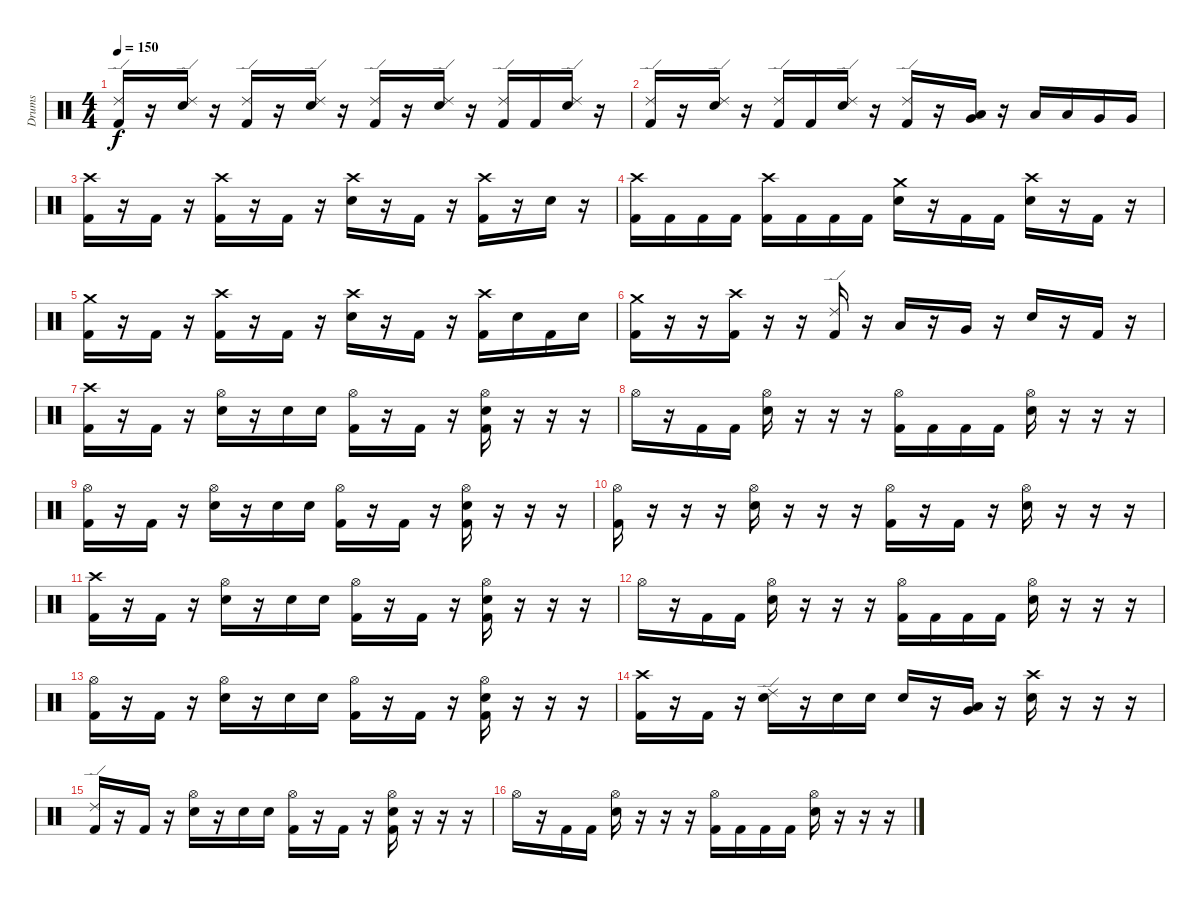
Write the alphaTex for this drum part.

\track ("Drums" "Drums") {instrument percussion}
\staff {score}
\articulation defaults
\ts (4 4)
\tempo 150
\clef neutral
\ks c
("Ride (edge) 2" "Kick (hit) 2").16{dy f} r.16 ("Ride (edge) 2" "Electric Snare (hit)").16 r.16 ("Ride (edge) 2" "Kick (hit) 2").16 r.16 ("Ride (edge) 2" "Electric Snare (hit)").16 r.16 ("Ride (edge) 2" "Kick (hit) 2").16 r.16 ("Ride (edge) 2" "Electric Snare (hit)").16 r.16 ("Ride (edge) 2" "Kick (hit) 2").16 "Kick (hit) 2".16 ("Ride (edge) 2" "Electric Snare (hit)").16 r.16 |
("Ride (edge) 2" "Kick (hit) 2").16 r.16 ("Ride (edge) 2" "Electric Snare (hit)").16 r.16 ("Ride (edge) 2" "Kick (hit) 2").16 "Kick (hit) 2".16 ("Ride (edge) 2" "Electric Snare (hit)").16 r.16 ("Ride (edge) 2" "Kick (hit) 2").16 r.16 ("Low Tom (hit)" "Very Low Tom (hit)").16 r.16 "Low Tom (hit)".16 "Low Tom (hit)".16 "Very Low Tom (hit)".16 "Very Low Tom (hit)".16 |
("Crash high (hit)" "Kick (hit) 2").16 r.16 "Kick (hit) 2".16 r.16 ("Crash high (hit)" "Kick (hit) 2").16 r.16 "Kick (hit) 2".16 r.16 ("Crash high (hit)" "Electric Snare (hit)").16 r.16 "Kick (hit) 2".16 r.16 ("Crash high (hit)" "Kick (hit) 2").16 r.16 "Electric Snare (hit)".16 r.16 |
("Crash high (hit)" "Kick (hit) 2").16 "Kick (hit) 2".16 "Kick (hit) 2".16 "Kick (hit) 2".16 ("Crash high (hit)" "Kick (hit) 2").16 "Kick (hit) 2".16 "Kick (hit) 2".16 "Kick (hit) 2".16 ("Crash medium (hit)" "Electric Snare (hit)").16 r.16 "Kick (hit) 2".16 "Kick (hit) 2".16 ("Crash high (hit)" "Electric Snare (hit)").16 r.16 "Kick (hit) 2".16 r.16 |
("Crash medium (hit)" "Kick (hit) 2").16 r.16 "Kick (hit) 2".16 r.16 ("Crash high (hit)" "Kick (hit) 2").16 r.16 "Kick (hit) 2".16 r.16 ("Crash high (hit)" "Electric Snare (hit)").16 r.16 "Kick (hit) 2".16 r.16 ("Crash high (hit)" "Kick (hit) 2").16 "Electric Snare (hit)".16 "Kick (hit) 2".16 "Electric Snare (hit)".16 |
("Crash medium (hit)" "Kick (hit) 2").16 r.16 r.16 ("Crash high (hit)" "Kick (hit) 2").16 r.16 r.16 ("Ride (edge) 2" "Kick (hit) 2").16 r.16 "Low Tom (hit)".16 r.16 "Very Low Tom (hit)".16 r.16 "Electric Snare (hit)".16 r.16 "Kick (hit) 2".16 r.16 |
("Crash high (hit)" "Kick (hit) 2").16 r.16 "Kick (hit) 2".16 r.16 ("Hi-Hat (open)" "Electric Snare (hit)").16 r.16 "Electric Snare (hit)".16 "Electric Snare (hit)".16 ("Hi-Hat (open)" "Kick (hit) 2").16 r.16 "Kick (hit) 2".16 r.16 ("Hi-Hat (open)" "Electric Snare (hit)" "Kick (hit) 2").16 r.16 r.16 r.16 |
"Hi-Hat (open)".16 r.16 "Kick (hit) 2".16 "Kick (hit) 2".16 ("Hi-Hat (open)" "Electric Snare (hit)").16 r.16 r.16 r.16 ("Hi-Hat (open)" "Kick (hit) 2").16 "Kick (hit) 2".16 "Kick (hit) 2".16 "Kick (hit) 2".16 ("Hi-Hat (open)" "Electric Snare (hit)").16 r.16 r.16 r.16 |
("Hi-Hat (open)" "Kick (hit) 2").16 r.16 "Kick (hit) 2".16 r.16 ("Hi-Hat (open)" "Electric Snare (hit)").16 r.16 "Electric Snare (hit)".16 "Electric Snare (hit)".16 ("Hi-Hat (open)" "Kick (hit) 2").16 r.16 "Kick (hit) 2".16 r.16 ("Hi-Hat (open)" "Electric Snare (hit)" "Kick (hit) 2").16 r.16 r.16 r.16 |
("Hi-Hat (open)" "Kick (hit) 2").16 r.16 r.16 r.16 ("Hi-Hat (open)" "Electric Snare (hit)").16 r.16 r.16 r.16 ("Hi-Hat (open)" "Kick (hit) 2").16 r.16 "Kick (hit) 2".16 r.16 ("Hi-Hat (open)" "Electric Snare (hit)").16 r.16 r.16 r.16 |
("Crash high (hit)" "Kick (hit) 2").16 r.16 "Kick (hit) 2".16 r.16 ("Hi-Hat (open)" "Electric Snare (hit)").16 r.16 "Electric Snare (hit)".16 "Electric Snare (hit)".16 ("Hi-Hat (open)" "Kick (hit) 2").16 r.16 "Kick (hit) 2".16 r.16 ("Hi-Hat (open)" "Electric Snare (hit)" "Kick (hit) 2").16 r.16 r.16 r.16 |
"Hi-Hat (open)".16 r.16 "Kick (hit) 2".16 "Kick (hit) 2".16 ("Hi-Hat (open)" "Electric Snare (hit)").16 r.16 r.16 r.16 ("Hi-Hat (open)" "Kick (hit) 2").16 "Kick (hit) 2".16 "Kick (hit) 2".16 "Kick (hit) 2".16 ("Hi-Hat (open)" "Electric Snare (hit)").16 r.16 r.16 r.16 |
("Hi-Hat (open)" "Kick (hit) 2").16 r.16 "Kick (hit) 2".16 r.16 ("Hi-Hat (open)" "Electric Snare (hit)").16 r.16 "Electric Snare (hit)".16 "Electric Snare (hit)".16 ("Hi-Hat (open)" "Kick (hit) 2").16 r.16 "Kick (hit) 2".16 r.16 ("Hi-Hat (open)" "Electric Snare (hit)" "Kick (hit) 2").16 r.16 r.16 r.16 |
("Crash high (hit)" "Kick (hit) 2").16 r.16 "Kick (hit) 2".16 r.16 ("Ride (edge) 2" "Electric Snare (hit)").16 r.16 "Electric Snare (hit)".16 "Electric Snare (hit)".16 "Electric Snare (hit)".16 r.16 ("Low Tom (hit)" "Very Low Tom (hit)").16 r.16 ("Crash high (hit)" "Electric Snare (hit)").16 r.16 r.16 r.16 |
("Ride (edge) 2" "Kick (hit) 2").16 r.16 "Kick (hit) 2".16 r.16 ("Hi-Hat (open)" "Electric Snare (hit)").16 r.16 "Electric Snare (hit)".16 "Electric Snare (hit)".16 ("Hi-Hat (open)" "Kick (hit) 2").16 r.16 "Kick (hit) 2".16 r.16 ("Hi-Hat (open)" "Electric Snare (hit)" "Kick (hit) 2").16 r.16 r.16 r.16 |
"Hi-Hat (open)".16 r.16 "Kick (hit) 2".16 "Kick (hit) 2".16 ("Hi-Hat (open)" "Electric Snare (hit)").16 r.16 r.16 r.16 ("Hi-Hat (open)" "Kick (hit) 2").16 "Kick (hit) 2".16 "Kick (hit) 2".16 "Kick (hit) 2".16 ("Hi-Hat (open)" "Electric Snare (hit)").16 r.16 r.16 r.16
